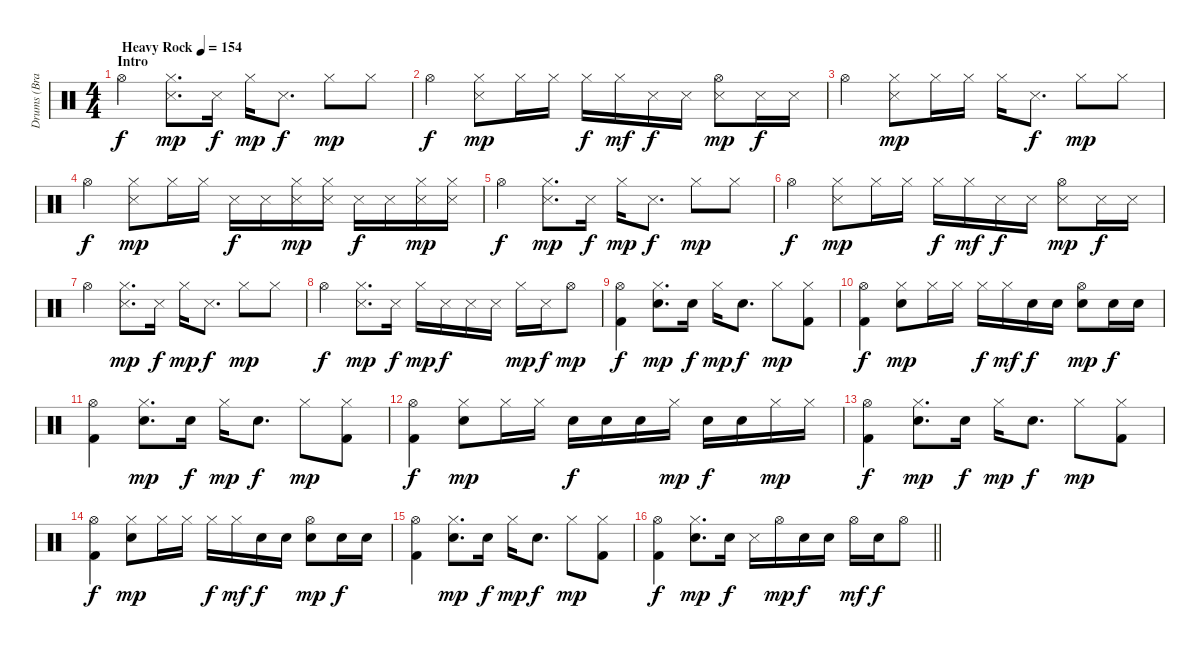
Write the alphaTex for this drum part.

\track ("Drums (Brandon Saller)" "Drums (Bra") {instrument percussion}
\staff {score}
\articulation defaults
\ts (4 4)
\section ("" "Intro")
\tempo (154 "Heavy Rock")
\clef neutral
\ks c "Hi-Hat (open)".4{dy f volume 8}
("Hi-Hat (closed)" "Snare (side stick) 3").8{d dy mp} "Snare (side stick) 3".16{dy f} "Hi-Hat (closed)".16{dy mp} "Snare (side stick) 3".8{d dy f} "Hi-Hat (closed)".8{dy mp} "Hi-Hat (closed)".8 |
"Hi-Hat (open)".4{dy f} ("Hi-Hat (closed)" "Snare (side stick) 3").8{dy mp} "Hi-Hat (closed)".16 "Hi-Hat (closed)".16 "Hi-Hat (closed)".16{dy f} "Hi-Hat (closed)".16{dy mf} "Snare (side stick) 3".16{dy f} "Snare (side stick) 3".16 ("Hi-Hat (open)" "Snare (side stick) 3").8{dy mp} "Snare (side stick) 3".16{dy f} "Snare (side stick) 3".16 |
"Hi-Hat (open)".4 ("Hi-Hat (closed)" "Snare (side stick) 3").8{dy mp} "Hi-Hat (closed)".16 "Hi-Hat (closed)".16 "Hi-Hat (closed)".16 "Snare (side stick) 3".8{d dy f} "Hi-Hat (closed)".8{dy mp} "Hi-Hat (closed)".8 |
"Hi-Hat (open)".4{dy f} ("Hi-Hat (closed)" "Snare (side stick) 3").8{dy mp} "Hi-Hat (closed)".16 "Hi-Hat (closed)".16 "Snare (side stick) 3".16{dy f} "Snare (side stick) 3".16 ("Hi-Hat (closed)" "Metronome (hit)").16{dy mp} ("Hi-Hat (closed)" "Metronome (hit)").16 "Snare (side stick) 3".16{dy f} "Snare (side stick) 3".16 ("Hi-Hat (closed)" "Metronome (hit)").16{dy mp} ("Hi-Hat (closed)" "Metronome (hit)").16 |
"Hi-Hat (open)".4{dy f} ("Hi-Hat (closed)" "Snare (side stick) 3").8{d dy mp} "Snare (side stick) 3".16{dy f} "Hi-Hat (closed)".16{dy mp} "Snare (side stick) 3".8{d dy f} "Hi-Hat (closed)".8{dy mp} "Hi-Hat (closed)".8 |
"Hi-Hat (open)".4{dy f} ("Hi-Hat (closed)" "Snare (side stick) 3").8{dy mp} "Hi-Hat (closed)".16 "Hi-Hat (closed)".16 "Hi-Hat (closed)".16{dy f} "Hi-Hat (closed)".16{dy mf} "Snare (side stick) 3".16{dy f} "Snare (side stick) 3".16 ("Hi-Hat (open)" "Snare (side stick) 3").8{dy mp} "Snare (side stick) 3".16{dy f} "Snare (side stick) 3".16 |
"Hi-Hat (open)".4 ("Hi-Hat (closed)" "Snare (side stick) 3").8{d dy mp} "Snare (side stick) 3".16{dy f} "Hi-Hat (closed)".16{dy mp} "Snare (side stick) 3".8{d dy f} "Hi-Hat (closed)".8{dy mp} "Hi-Hat (closed)".8 |
"Hi-Hat (open)".4{dy f} ("Hi-Hat (closed)" "Snare (side stick) 3").8{d dy mp} "Snare (side stick) 3".16{dy f} "Hi-Hat (closed)".16{dy mp} "Snare (side stick) 3".16{dy f} "Snare (side stick) 3".16 "Snare (side stick) 3".16 "Hi-Hat (closed)".16{dy mp} "Snare (side stick) 3".16{dy f} "Hi-Hat (open)".8{dy mp} |
("Hi-Hat (open)" "Kick (hit) 2").4{dy f volume 10} ("Hi-Hat (closed)" "Electric Snare (hit)").8{d dy mp} "Electric Snare (hit)".16{dy f} "Hi-Hat (closed)".16{dy mp} "Electric Snare (hit)".8{d dy f} "Hi-Hat (closed)".8{dy mp} ("Hi-Hat (closed)" "Kick (hit) 2").8 |
("Hi-Hat (open)" "Kick (hit) 2").4{dy f} ("Hi-Hat (closed)" "Electric Snare (hit)").8{dy mp} "Hi-Hat (closed)".16 "Hi-Hat (closed)".16 "Hi-Hat (closed)".16{dy f} "Hi-Hat (closed)".16{dy mf} "Electric Snare (hit)".16{dy f} "Electric Snare (hit)".16 ("Hi-Hat (open)" "Electric Snare (hit)").8{dy mp} "Electric Snare (hit)".16{dy f} "Electric Snare (hit)".16 |
("Hi-Hat (open)" "Kick (hit) 2").4 ("Hi-Hat (closed)" "Electric Snare (hit)").8{d dy mp} "Electric Snare (hit)".16{dy f} "Hi-Hat (closed)".16{dy mp} "Electric Snare (hit)".8{d dy f} "Hi-Hat (closed)".8{dy mp} ("Hi-Hat (closed)" "Kick (hit) 2").8 |
("Hi-Hat (open)" "Kick (hit) 2").4{dy f} ("Hi-Hat (closed)" "Electric Snare (hit)").8{dy mp} "Hi-Hat (closed)".16 "Hi-Hat (closed)".16 "Electric Snare (hit)".16{dy f} "Electric Snare (hit)".16 "Electric Snare (hit)".16 "Hi-Hat (closed)".16{dy mp} "Electric Snare (hit)".16{dy f} "Electric Snare (hit)".16 "Hi-Hat (closed)".16{dy mp} "Hi-Hat (closed)".16 |
("Hi-Hat (open)" "Kick (hit) 2").4{dy f} ("Hi-Hat (closed)" "Electric Snare (hit)").8{d dy mp} "Electric Snare (hit)".16{dy f} "Hi-Hat (closed)".16{dy mp} "Electric Snare (hit)".8{d dy f} "Hi-Hat (closed)".8{dy mp} ("Hi-Hat (closed)" "Kick (hit) 2").8 |
("Hi-Hat (open)" "Kick (hit) 2").4{dy f} ("Hi-Hat (closed)" "Electric Snare (hit)").8{dy mp} "Hi-Hat (closed)".16 "Hi-Hat (closed)".16 "Hi-Hat (closed)".16{dy f} "Hi-Hat (closed)".16{dy mf} "Electric Snare (hit)".16{dy f} "Electric Snare (hit)".16 ("Hi-Hat (open)" "Electric Snare (hit)").8{dy mp} "Electric Snare (hit)".16{dy f} "Electric Snare (hit)".16 |
("Hi-Hat (open)" "Kick (hit) 2").4 ("Hi-Hat (closed)" "Electric Snare (hit)").8{d dy mp} "Electric Snare (hit)".16{dy f} "Hi-Hat (closed)".16{dy mp} "Electric Snare (hit)".8{d dy f} "Hi-Hat (closed)".8{dy mp} ("Hi-Hat (closed)" "Kick (hit) 2").8 |
\barLineRight lightlight
("Hi-Hat (open)" "Kick (hit) 2").4{dy f} ("Hi-Hat (closed)" "Electric Snare (hit)").8{d dy mp} "Electric Snare (hit)".16{dy f} "Metronome (hit)".16 "Hi-Hat (open)".16{dy mp} "Electric Snare (hit)".16{dy f} "Electric Snare (hit)".16 "Hi-Hat (open)".16{dy mf} "Electric Snare (hit)".16{dy f} "Hi-Hat (open)".8
